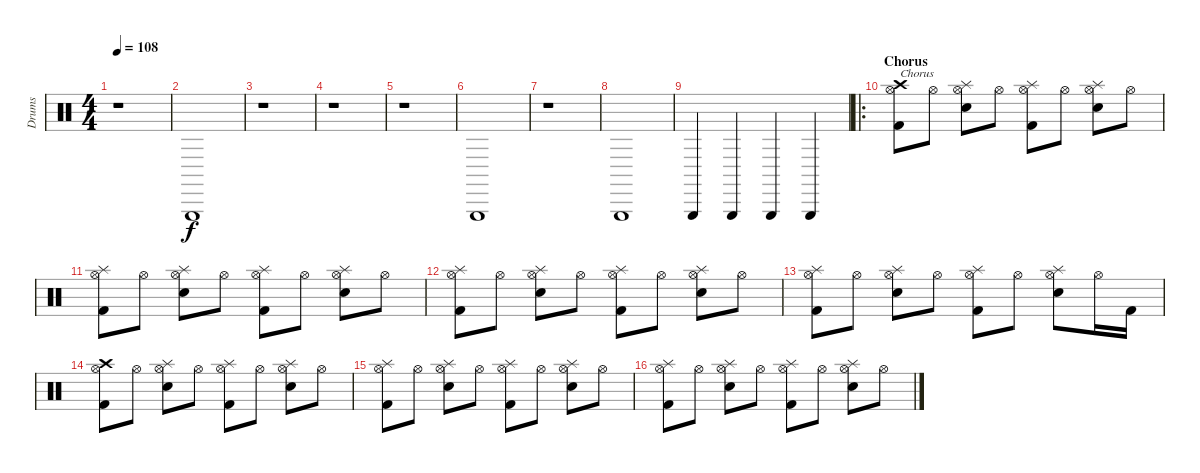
\track ("Drums" "Drums") {instrument percussion}
\staff {score}
\articulation defaults
\ts (4 4)
\tempo 108
\clef neutral
\ks c
r.1{dy f} |
"Triangle (hit)".1 |
r.1 |
r.1 |
r.1 |
"Triangle (hit)".1 |
r.1 |
"Triangle (hit)".1 |
"Triangle (hit)".4 "Triangle (hit)".4 "Triangle (hit)".4 "Triangle (hit)".4 |
\ro
\section ("" "Chorus")
("Crash high (hit)" "Hi-Hat (open)" "Kick (hit) 2").8{txt "Chorus"} "Hi-Hat (open)".8 ("Splash (hit)" "Hi-Hat (open)" "Snare (hit) 2").8 "Hi-Hat (open)".8 ("Splash (hit)" "Hi-Hat (open)" "Kick (hit) 2").8 "Hi-Hat (open)".8 ("Splash (hit)" "Hi-Hat (open)" "Snare (hit) 2").8 "Hi-Hat (open)".8 |
("Splash (hit)" "Hi-Hat (open)" "Kick (hit) 2").8 "Hi-Hat (open)".8 ("Splash (hit)" "Hi-Hat (open)" "Snare (hit) 2").8 "Hi-Hat (open)".8 ("Splash (hit)" "Hi-Hat (open)" "Kick (hit) 2").8 "Hi-Hat (open)".8 ("Splash (hit)" "Hi-Hat (open)" "Snare (hit) 2").8 "Hi-Hat (open)".8 |
("Splash (hit)" "Hi-Hat (open)" "Kick (hit) 2").8 "Hi-Hat (open)".8 ("Splash (hit)" "Hi-Hat (open)" "Snare (hit) 2").8 "Hi-Hat (open)".8 ("Splash (hit)" "Hi-Hat (open)" "Kick (hit) 2").8 "Hi-Hat (open)".8 ("Splash (hit)" "Hi-Hat (open)" "Snare (hit) 2").8 "Hi-Hat (open)".8 |
("Splash (hit)" "Hi-Hat (open)" "Kick (hit) 2").8 "Hi-Hat (open)".8 ("Splash (hit)" "Hi-Hat (open)" "Snare (hit) 2").8 "Hi-Hat (open)".8 ("Splash (hit)" "Hi-Hat (open)" "Kick (hit) 2").8 "Hi-Hat (open)".8 ("Splash (hit)" "Hi-Hat (open)" "Snare (hit) 2").8 "Hi-Hat (open)".16 "Kick (hit) 2".16 |
("Crash high (hit)" "Hi-Hat (open)" "Kick (hit) 2").8 "Hi-Hat (open)".8 ("Splash (hit)" "Hi-Hat (open)" "Snare (hit) 2").8 "Hi-Hat (open)".8 ("Splash (hit)" "Hi-Hat (open)" "Kick (hit) 2").8 "Hi-Hat (open)".8 ("Splash (hit)" "Hi-Hat (open)" "Snare (hit) 2").8 "Hi-Hat (open)".8 |
("Splash (hit)" "Hi-Hat (open)" "Kick (hit) 2").8 "Hi-Hat (open)".8 ("Splash (hit)" "Hi-Hat (open)" "Snare (hit) 2").8 "Hi-Hat (open)".8 ("Splash (hit)" "Hi-Hat (open)" "Kick (hit) 2").8 "Hi-Hat (open)".8 ("Splash (hit)" "Hi-Hat (open)" "Snare (hit) 2").8 "Hi-Hat (open)".8 |
("Splash (hit)" "Hi-Hat (open)" "Kick (hit) 2").8 "Hi-Hat (open)".8 ("Splash (hit)" "Hi-Hat (open)" "Snare (hit) 2").8 "Hi-Hat (open)".8 ("Splash (hit)" "Hi-Hat (open)" "Kick (hit) 2").8 "Hi-Hat (open)".8 ("Splash (hit)" "Hi-Hat (open)" "Snare (hit) 2").8 "Hi-Hat (open)".8
